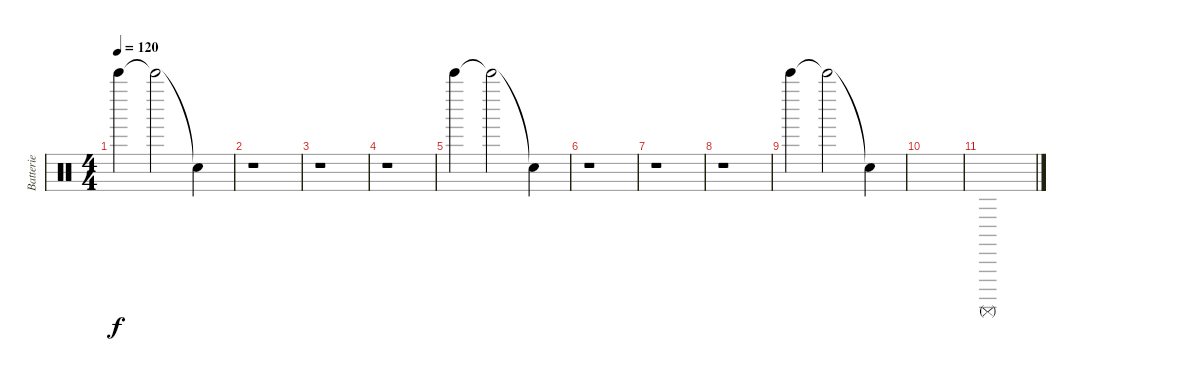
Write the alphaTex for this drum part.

\track ("Batterie" "Batterie") {instrument percussion}
\staff {score}
\articulation defaults
\ts (4 4)
\tempo 120
\clef neutral
\ks c "Bell Tree (hit)".4{dy f} "Bell Tree (hit)"{t}.2 "Snare (hit)"{t}.4
|
r.1 |
r.1 |
r.1 |
"Bell Tree (hit)".4 "Bell Tree (hit)"{t}.2 "Snare (hit)"{t}.4 |
r.1 |
r.1 |
r.1 |
"Bell Tree (hit)".4 "Bell Tree (hit)"{t}.2 "Snare (hit)"{t}.4 |
|
"Surdo (mute)".1
